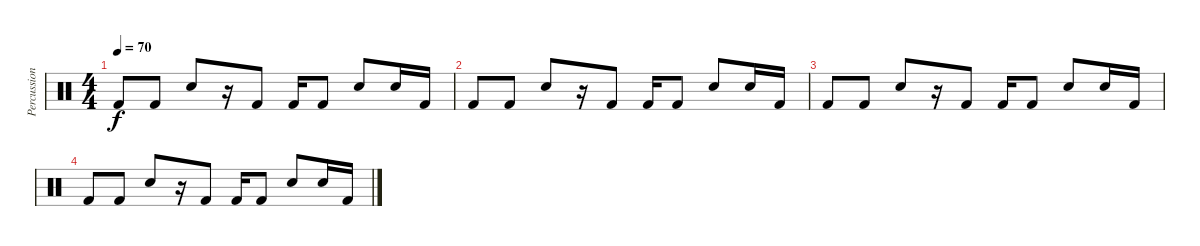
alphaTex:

\track ("Percussion 2" "Percussion") {instrument percussion}
\staff {score}
\articulation defaults
\ts (4 4)
\tempo 70
\clef neutral
\ks c "Kick (hit) 2".8{dy f} "Kick (hit) 2".8 "Electric Snare (hit)".8
r.16 "Kick (hit) 2".8 "Kick (hit) 2".16 "Kick (hit) 2".8 "Electric Snare (hit)".8 "Electric Snare (hit)".16 "Kick (hit) 2".16 |
"Kick (hit) 2".8 "Kick (hit) 2".8 "Electric Snare (hit)".8 r.16 "Kick (hit) 2".8 "Kick (hit) 2".16 "Kick (hit) 2".8 "Electric Snare (hit)".8 "Electric Snare (hit)".16 "Kick (hit) 2".16 |
"Kick (hit) 2".8 "Kick (hit) 2".8 "Electric Snare (hit)".8 r.16 "Kick (hit) 2".8 "Kick (hit) 2".16 "Kick (hit) 2".8 "Electric Snare (hit)".8 "Electric Snare (hit)".16 "Kick (hit) 2".16 |
"Kick (hit) 2".8 "Kick (hit) 2".8 "Electric Snare (hit)".8 r.16 "Kick (hit) 2".8 "Kick (hit) 2".16 "Kick (hit) 2".8 "Electric Snare (hit)".8 "Electric Snare (hit)".16 "Kick (hit) 2".16
